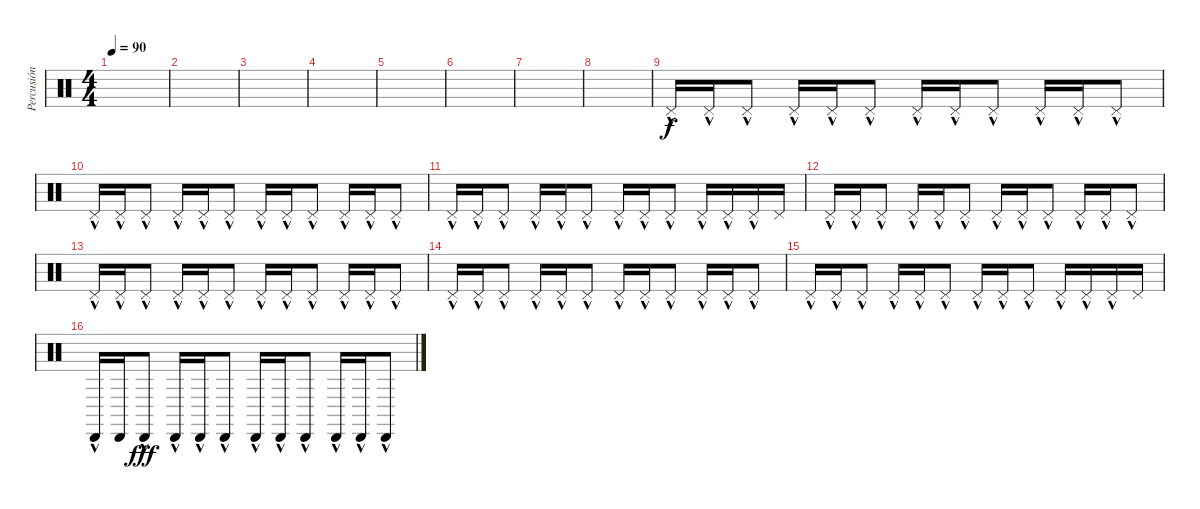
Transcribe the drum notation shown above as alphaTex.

\track ("Percusión" "Percusión") {instrument percussion}
\staff {score}
\articulation defaults
\ts (4 4)
\tempo 90
\clef neutral
\ks c
|
|
|
|
|
|
|
|
"Pedal Hi-Hat (hit)"{hac}.16 "Pedal Hi-Hat (hit)"{hac}.16 "Pedal Hi-Hat (hit)"{hac}.8 "Pedal Hi-Hat (hit)"{hac}.16 "Pedal Hi-Hat (hit)"{hac}.16 "Pedal Hi-Hat (hit)"{hac}.8 "Pedal Hi-Hat (hit)"{hac}.16 "Pedal Hi-Hat (hit)"{hac}.16 "Pedal Hi-Hat (hit)"{hac}.8 "Pedal Hi-Hat (hit)"{hac}.16 "Pedal Hi-Hat (hit)"{hac}.16 "Pedal Hi-Hat (hit)"{hac}.8 |
"Pedal Hi-Hat (hit)"{hac}.16 "Pedal Hi-Hat (hit)"{hac}.16 "Pedal Hi-Hat (hit)"{hac}.8 "Pedal Hi-Hat (hit)"{hac}.16 "Pedal Hi-Hat (hit)"{hac}.16 "Pedal Hi-Hat (hit)"{hac}.8 "Pedal Hi-Hat (hit)"{hac}.16 "Pedal Hi-Hat (hit)"{hac}.16 "Pedal Hi-Hat (hit)"{hac}.8 "Pedal Hi-Hat (hit)"{hac}.16 "Pedal Hi-Hat (hit)"{hac}.16 "Pedal Hi-Hat (hit)"{hac}.8 |
"Pedal Hi-Hat (hit)"{hac}.16 "Pedal Hi-Hat (hit)"{hac}.16 "Pedal Hi-Hat (hit)"{hac}.8 "Pedal Hi-Hat (hit)"{hac}.16 "Pedal Hi-Hat (hit)"{hac}.16 "Pedal Hi-Hat (hit)"{hac}.8 "Pedal Hi-Hat (hit)"{hac}.16 "Pedal Hi-Hat (hit)"{hac}.16 "Pedal Hi-Hat (hit)"{hac}.8 "Pedal Hi-Hat (hit)"{hac}.16 "Pedal Hi-Hat (hit)"{hac}.16 "Pedal Hi-Hat (hit)"{hac}.16 "Pedal Hi-Hat (hit)".16 |
"Pedal Hi-Hat (hit)"{hac}.16 "Pedal Hi-Hat (hit)"{hac}.16 "Pedal Hi-Hat (hit)"{hac}.8 "Pedal Hi-Hat (hit)"{hac}.16 "Pedal Hi-Hat (hit)"{hac}.16 "Pedal Hi-Hat (hit)"{hac}.8 "Pedal Hi-Hat (hit)"{hac}.16 "Pedal Hi-Hat (hit)"{hac}.16 "Pedal Hi-Hat (hit)"{hac}.8 "Pedal Hi-Hat (hit)"{hac}.16 "Pedal Hi-Hat (hit)"{hac}.16 "Pedal Hi-Hat (hit)"{hac}.8 |
"Pedal Hi-Hat (hit)"{hac}.16 "Pedal Hi-Hat (hit)"{hac}.16 "Pedal Hi-Hat (hit)"{hac}.8 "Pedal Hi-Hat (hit)"{hac}.16 "Pedal Hi-Hat (hit)"{hac}.16 "Pedal Hi-Hat (hit)"{hac}.8 "Pedal Hi-Hat (hit)"{hac}.16 "Pedal Hi-Hat (hit)"{hac}.16 "Pedal Hi-Hat (hit)"{hac}.8 "Pedal Hi-Hat (hit)"{hac}.16 "Pedal Hi-Hat (hit)"{hac}.16 "Pedal Hi-Hat (hit)"{hac}.8 |
"Pedal Hi-Hat (hit)"{hac}.16 "Pedal Hi-Hat (hit)"{hac}.16 "Pedal Hi-Hat (hit)"{hac}.8 "Pedal Hi-Hat (hit)"{hac}.16 "Pedal Hi-Hat (hit)"{hac}.16 "Pedal Hi-Hat (hit)"{hac}.8 "Pedal Hi-Hat (hit)"{hac}.16 "Pedal Hi-Hat (hit)"{hac}.16 "Pedal Hi-Hat (hit)"{hac}.8 "Pedal Hi-Hat (hit)"{hac}.16 "Pedal Hi-Hat (hit)"{hac}.16 "Pedal Hi-Hat (hit)"{hac}.8 |
"Pedal Hi-Hat (hit)"{hac}.16 "Pedal Hi-Hat (hit)"{hac}.16 "Pedal Hi-Hat (hit)"{hac}.8 "Pedal Hi-Hat (hit)"{hac}.16 "Pedal Hi-Hat (hit)"{hac}.16 "Pedal Hi-Hat (hit)"{hac}.8 "Pedal Hi-Hat (hit)"{hac}.16 "Pedal Hi-Hat (hit)"{hac}.16 "Pedal Hi-Hat (hit)"{hac}.8 "Pedal Hi-Hat (hit)"{hac}.16 "Pedal Hi-Hat (hit)"{hac}.16 "Pedal Hi-Hat (hit)"{hac}.16 "Pedal Hi-Hat (hit)".16 |
"Cabasa (hit)"{hac}.16 "Cabasa (hit)".16{dy f} "Cabasa (hit)"{hac}.8{dy fff} "Cabasa (hit)"{hac}.16 "Cabasa (hit)"{hac}.16 "Cabasa (hit)"{hac}.8 "Cabasa (hit)"{hac}.16 "Cabasa (hit)"{hac}.16 "Cabasa (hit)"{hac}.8 "Cabasa (hit)"{hac}.16 "Cabasa (hit)"{hac}.16 "Cabasa (hit)"{hac}.8
